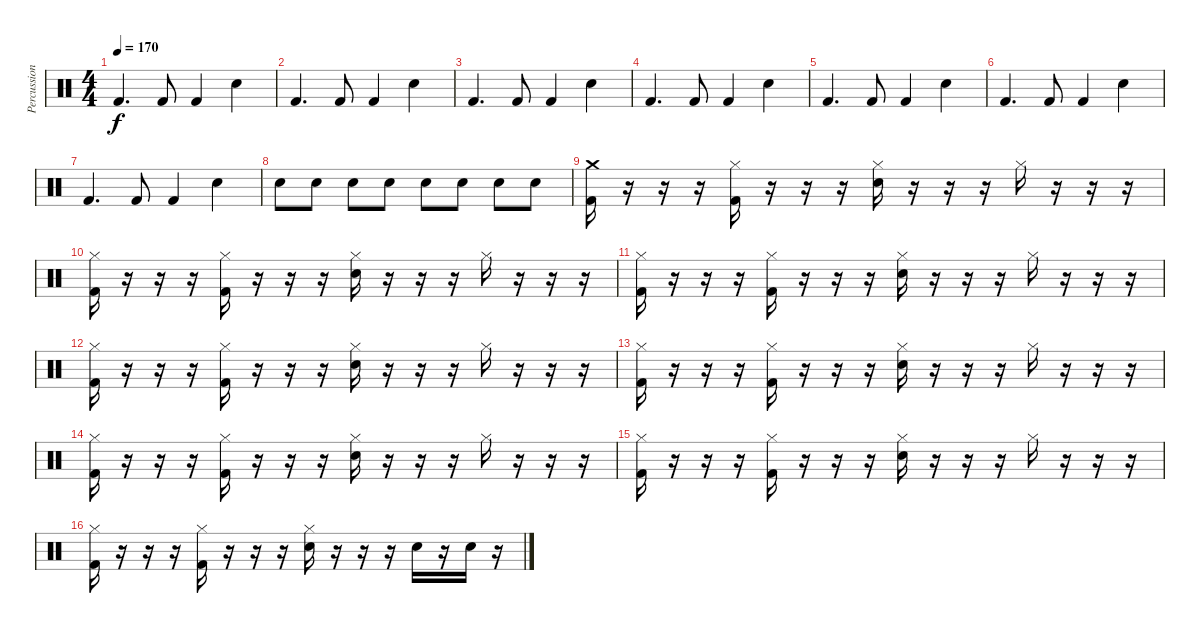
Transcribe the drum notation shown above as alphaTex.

\track ("Percussion" "Percussion") {instrument percussion}
\staff {score}
\articulation defaults
\ts (4 4)
\tempo 170
\clef neutral
\ks c "Kick (hit) 2".4{d dy f} "Kick (hit) 2".8 "Kick (hit) 2".4 "Snare (hit) 2".4
|
"Kick (hit) 2".4{d} "Kick (hit) 2".8 "Kick (hit) 2".4 "Snare (hit) 2".4 |
"Kick (hit) 2".4{d} "Kick (hit) 2".8 "Kick (hit) 2".4 "Snare (hit) 2".4 |
"Kick (hit) 2".4{d} "Kick (hit) 2".8 "Kick (hit) 2".4 "Snare (hit) 2".4 |
"Kick (hit) 2".4{d} "Kick (hit) 2".8 "Kick (hit) 2".4 "Snare (hit) 2".4 |
"Kick (hit) 2".4{d} "Kick (hit) 2".8 "Kick (hit) 2".4 "Snare (hit) 2".4 |
"Kick (hit) 2".4{d} "Kick (hit) 2".8 "Kick (hit) 2".4 "Snare (hit) 2".4 |
"Snare (hit) 2".8 "Snare (hit) 2".8 "Snare (hit) 2".8 "Snare (hit) 2".8 "Snare (hit) 2".8 "Snare (hit) 2".8 "Snare (hit) 2".8 "Snare (hit) 2".8 |
("Crash medium (hit)" "Kick (hit) 2").16 r.16 r.16 r.16 ("Hi-Hat (closed)" "Kick (hit) 2").16 r.16 r.16 r.16 ("Hi-Hat (closed)" "Snare (hit) 2").16 r.16 r.16 r.16 "Hi-Hat (closed)".16 r.16 r.16 r.16 |
("Hi-Hat (closed)" "Kick (hit) 2").16 r.16 r.16 r.16 ("Hi-Hat (closed)" "Kick (hit) 2").16 r.16 r.16 r.16 ("Hi-Hat (closed)" "Snare (hit) 2").16 r.16 r.16 r.16 "Hi-Hat (closed)".16 r.16 r.16 r.16 |
("Hi-Hat (closed)" "Kick (hit) 2").16 r.16 r.16 r.16 ("Hi-Hat (closed)" "Kick (hit) 2").16 r.16 r.16 r.16 ("Hi-Hat (closed)" "Snare (hit) 2").16 r.16 r.16 r.16 "Hi-Hat (closed)".16 r.16 r.16 r.16 |
("Hi-Hat (closed)" "Kick (hit) 2").16 r.16 r.16 r.16 ("Hi-Hat (closed)" "Kick (hit) 2").16 r.16 r.16 r.16 ("Hi-Hat (closed)" "Snare (hit) 2").16 r.16 r.16 r.16 "Hi-Hat (closed)".16 r.16 r.16 r.16 |
("Hi-Hat (closed)" "Kick (hit) 2").16 r.16 r.16 r.16 ("Hi-Hat (closed)" "Kick (hit) 2").16 r.16 r.16 r.16 ("Hi-Hat (closed)" "Snare (hit) 2").16 r.16 r.16 r.16 "Hi-Hat (closed)".16 r.16 r.16 r.16 |
("Hi-Hat (closed)" "Kick (hit) 2").16 r.16 r.16 r.16 ("Hi-Hat (closed)" "Kick (hit) 2").16 r.16 r.16 r.16 ("Hi-Hat (closed)" "Snare (hit) 2").16 r.16 r.16 r.16 "Hi-Hat (closed)".16 r.16 r.16 r.16 |
("Hi-Hat (closed)" "Kick (hit) 2").16 r.16 r.16 r.16 ("Hi-Hat (closed)" "Kick (hit) 2").16 r.16 r.16 r.16 ("Hi-Hat (closed)" "Snare (hit) 2").16 r.16 r.16 r.16 "Hi-Hat (closed)".16 r.16 r.16 r.16 |
("Hi-Hat (closed)" "Kick (hit) 2").16 r.16 r.16 r.16 ("Hi-Hat (closed)" "Kick (hit) 2").16 r.16 r.16 r.16 ("Hi-Hat (closed)" "Snare (hit) 2").16 r.16 r.16 r.16 "Snare (hit) 2".16 r.16 "Snare (hit) 2".16 r.16
